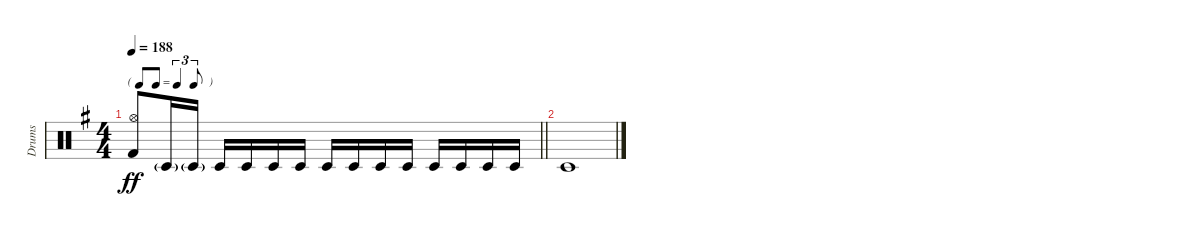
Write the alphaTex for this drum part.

\track ("Drums" "Drums") {instrument percussion}
\staff {score}
\articulation defaults
\ts (4 4)
\tf triplet8th
\tempo 188
\clef neutral
\barLineRight lightlight
\ks g
("Hi-Hat (open)" "Kick (hit) 2").8{dy ff} "Timbale low (hit)"{g}.16 "Timbale low (hit)"{g}.16 "Timbale low (hit)".16 "Timbale low (hit)".16 "Timbale low (hit)".16 "Timbale low (hit)".16 "Timbale low (hit)".16 "Timbale low (hit)".16 "Timbale low (hit)".16 "Timbale low (hit)".16 "Timbale low (hit)".16 "Timbale low (hit)".16 "Timbale low (hit)".16 "Timbale low (hit)".16 |
"Timbale low (hit)".1
